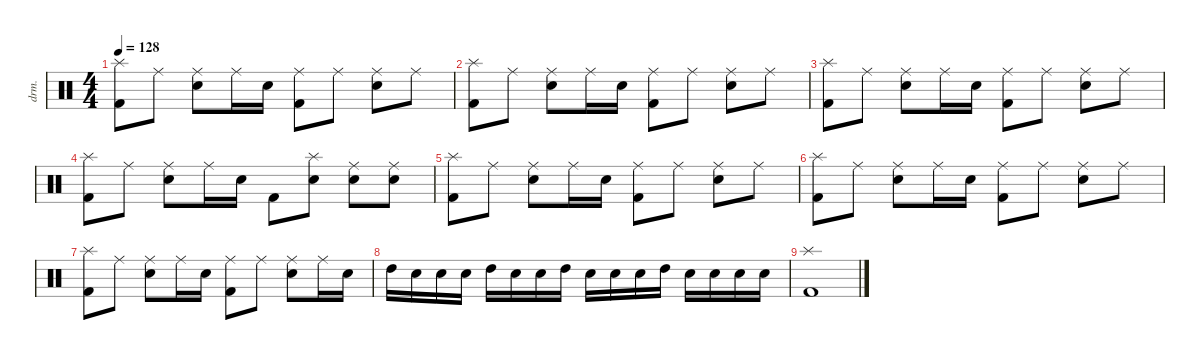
\defaultSystemsLayout 4
\hideDynamics
\bracketExtendMode nobrackets
\track ("Drumkit" "drm.") {instrument percussion}
\staff {score}
\articulation defaults
\ts (4 4)
\tempo 128
\clef neutral
\ks c
("Kick (hit) 2" "Splash (hit)").8{dy mf beam Down} "Ride (middle)".8{beam Down} ("Ride (middle)" "Snare (hit) 2").8{beam Down} "Ride (middle)".16{beam Down} "Snare (hit) 2".16{beam Down} ("Ride (middle)" "Kick (hit) 2").8{beam Down} "Ride (middle)".8{beam Down} ("Ride (middle)" "Snare (hit) 2").8{beam Down} "Ride (middle)".8{beam Down} |
("Kick (hit) 2" "Splash (hit)").8{beam Down} "Ride (middle)".8{beam Down} ("Ride (middle)" "Snare (hit) 2").8{beam Down} "Ride (middle)".16{beam Down} "Snare (hit) 2".16{beam Down} ("Ride (middle)" "Kick (hit) 2").8{beam Down} "Ride (middle)".8{beam Down} ("Ride (middle)" "Snare (hit) 2").8{beam Down} "Ride (middle)".8{beam Down} |
("Kick (hit) 2" "Splash (hit)").8{beam Down} "Ride (middle)".8{beam Down} ("Ride (middle)" "Snare (hit) 2").8{beam Down} "Ride (middle)".16{beam Down} "Snare (hit) 2".16{beam Down} ("Ride (middle)" "Kick (hit) 2").8{beam Down} "Ride (middle)".8{beam Down} ("Ride (middle)" "Snare (hit) 2").8{beam Down} "Ride (middle)".8{beam Down} |
("Kick (hit) 2" "Splash (hit)").8{beam Down} "Ride (middle)".8{beam Down} ("Ride (middle)" "Snare (hit) 2").8{beam Down} "Ride (middle)".16{beam Down} "Snare (hit) 2".16{beam Down} "Kick (hit) 2".8{beam Down} ("Snare (hit) 2" "Splash (hit)").8{beam Down} ("Ride (middle)" "Snare (hit) 2").8{beam Down} ("Ride (middle)" "Snare (hit) 2").8{beam Down} |
("Kick (hit) 2" "Splash (hit)").8{beam Down} "Ride (middle)".8{beam Down} ("Ride (middle)" "Snare (hit) 2").8{beam Down} "Ride (middle)".16{beam Down} "Snare (hit) 2".16{beam Down} ("Ride (middle)" "Kick (hit) 2").8{beam Down} "Ride (middle)".8{beam Down} ("Ride (middle)" "Snare (hit) 2").8{beam Down} "Ride (middle)".8{beam Down} |
("Kick (hit) 2" "Splash (hit)").8{beam Down} "Ride (middle)".8{beam Down} ("Ride (middle)" "Snare (hit) 2").8{beam Down} "Ride (middle)".16{beam Down} "Snare (hit) 2".16{beam Down} ("Ride (middle)" "Kick (hit) 2").8{beam Down} "Ride (middle)".8{beam Down} ("Ride (middle)" "Snare (hit) 2").8{beam Down} "Ride (middle)".8{beam Down} |
("Kick (hit) 2" "Splash (hit)").8{beam Down} "Ride (middle)".8{beam Down} ("Ride (middle)" "Snare (hit) 2").8{beam Down} "Ride (middle)".16{beam Down} "Snare (hit) 2".16{beam Down} ("Ride (middle)" "Kick (hit) 2").8{beam Down} "Ride (middle)".8{beam Down} ("Ride (middle)" "Snare (hit) 2").8{beam Down} "Ride (middle)".16{beam Down} "Snare (hit) 2".16{beam Down} |
"High Tom (hit)".16{beam Down} "Snare (hit) 2".16{beam Down} "Snare (hit) 2".16{beam Down} "Snare (hit) 2".16{beam Down} "High Tom (hit)".16{beam Down} "Snare (hit) 2".16{beam Down} "Snare (hit) 2".16{beam Down} "High Tom (hit)".16{beam Down} "Snare (hit) 2".16{beam Down} "Snare (hit) 2".16{beam Down} "Snare (hit) 2".16{beam Down} "High Tom (hit)".16{beam Down} "Snare (hit) 2".16{beam Down} "Snare (hit) 2".16{beam Down} "Snare (hit) 2".16{beam Down} "Snare (hit) 2".16{beam Down} |
("Kick (hit) 2" "Splash (hit)").1{beam Down}
